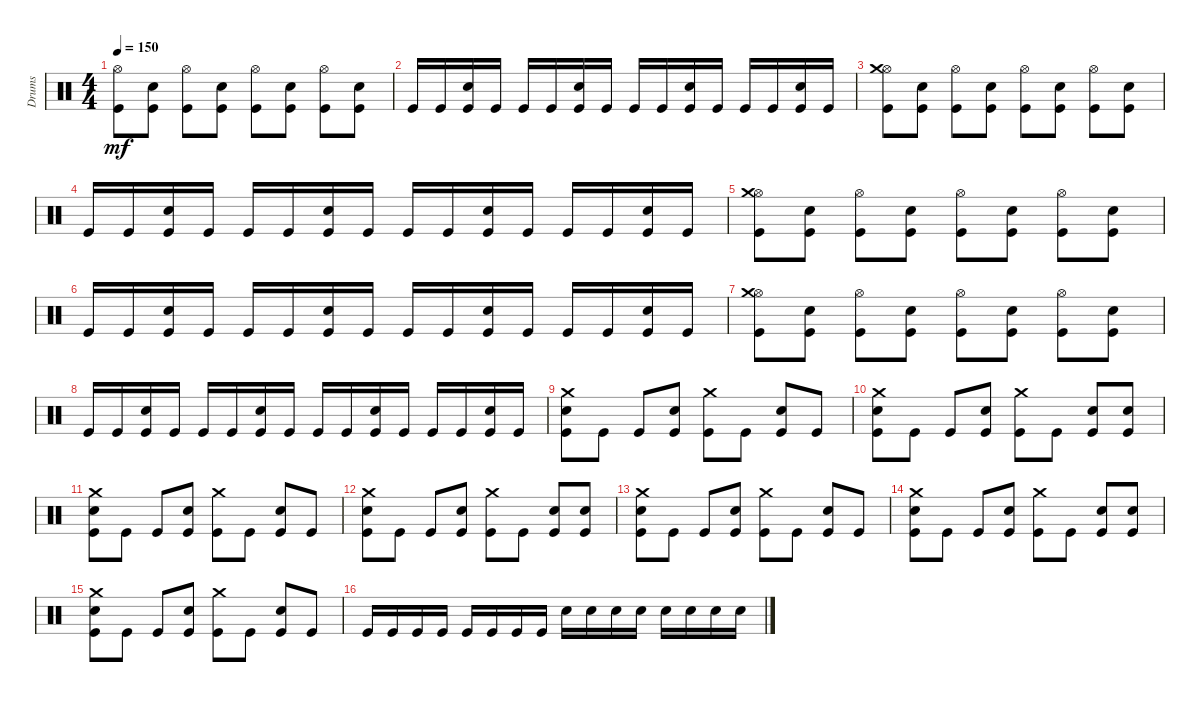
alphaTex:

\track ("Drums" "Drums") {instrument percussion}
\staff {score}
\articulation defaults
\ts (4 4)
\tempo 150
\clef neutral
\ks c
("Kick (hit)" "Hi-Hat (open)").8{dy mf} ("Kick (hit)" "Snare (hit) 2").8 ("Kick (hit)" "Hi-Hat (open)").8 ("Kick (hit)" "Snare (hit) 2").8 ("Kick (hit)" "Hi-Hat (open)").8 ("Kick (hit)" "Snare (hit) 2").8 ("Kick (hit)" "Hi-Hat (open)").8 ("Kick (hit)" "Snare (hit) 2").8 |
"Kick (hit)".16 "Kick (hit)".16 ("Kick (hit)" "Snare (hit) 2").16 "Kick (hit)".16 "Kick (hit)".16 "Kick (hit)".16 ("Kick (hit)" "Snare (hit) 2").16 "Kick (hit)".16 "Kick (hit)".16 "Kick (hit)".16 ("Kick (hit)" "Snare (hit) 2").16 "Kick (hit)".16 "Kick (hit)".16 "Kick (hit)".16 ("Kick (hit)" "Snare (hit) 2").16 "Kick (hit)".16 |
("Kick (hit)" "Hi-Hat (open)" "Crash medium (hit)").8 ("Kick (hit)" "Snare (hit) 2").8 ("Kick (hit)" "Hi-Hat (open)").8 ("Kick (hit)" "Snare (hit) 2").8 ("Kick (hit)" "Hi-Hat (open)").8 ("Kick (hit)" "Snare (hit) 2").8 ("Kick (hit)" "Hi-Hat (open)").8 ("Kick (hit)" "Snare (hit) 2").8 |
"Kick (hit)".16 "Kick (hit)".16 ("Kick (hit)" "Snare (hit) 2").16 "Kick (hit)".16 "Kick (hit)".16 "Kick (hit)".16 ("Kick (hit)" "Snare (hit) 2").16 "Kick (hit)".16 "Kick (hit)".16 "Kick (hit)".16 ("Kick (hit)" "Snare (hit) 2").16 "Kick (hit)".16 "Kick (hit)".16 "Kick (hit)".16 ("Kick (hit)" "Snare (hit) 2").16 "Kick (hit)".16 |
("Kick (hit)" "Hi-Hat (open)" "Crash medium (hit)").8 ("Kick (hit)" "Snare (hit) 2").8 ("Kick (hit)" "Hi-Hat (open)").8 ("Kick (hit)" "Snare (hit) 2").8 ("Kick (hit)" "Hi-Hat (open)").8 ("Kick (hit)" "Snare (hit) 2").8 ("Kick (hit)" "Hi-Hat (open)").8 ("Kick (hit)" "Snare (hit) 2").8 |
"Kick (hit)".16 "Kick (hit)".16 ("Kick (hit)" "Snare (hit) 2").16 "Kick (hit)".16 "Kick (hit)".16 "Kick (hit)".16 ("Kick (hit)" "Snare (hit) 2").16 "Kick (hit)".16 "Kick (hit)".16 "Kick (hit)".16 ("Kick (hit)" "Snare (hit) 2").16 "Kick (hit)".16 "Kick (hit)".16 "Kick (hit)".16 ("Kick (hit)" "Snare (hit) 2").16 "Kick (hit)".16 |
("Kick (hit)" "Hi-Hat (open)" "Crash medium (hit)").8 ("Kick (hit)" "Snare (hit) 2").8 ("Kick (hit)" "Hi-Hat (open)").8 ("Kick (hit)" "Snare (hit) 2").8 ("Kick (hit)" "Hi-Hat (open)").8 ("Kick (hit)" "Snare (hit) 2").8 ("Kick (hit)" "Hi-Hat (open)").8 ("Kick (hit)" "Snare (hit) 2").8 |
"Kick (hit)".16 "Kick (hit)".16 ("Kick (hit)" "Snare (hit) 2").16 "Kick (hit)".16 "Kick (hit)".16 "Kick (hit)".16 ("Kick (hit)" "Snare (hit) 2").16 "Kick (hit)".16 "Kick (hit)".16 "Kick (hit)".16 ("Kick (hit)" "Snare (hit) 2").16 "Kick (hit)".16 "Kick (hit)".16 "Kick (hit)".16 ("Kick (hit)" "Snare (hit) 2").16 "Kick (hit)".16 |
("Kick (hit)" "Snare (hit) 2" "Crash medium (hit)").8 "Kick (hit)".8 "Kick (hit)".8 ("Kick (hit)" "Snare (hit) 2").8 ("Kick (hit)" "Crash medium (hit)").8 "Kick (hit)".8 ("Kick (hit)" "Snare (hit) 2").8 "Kick (hit)".8 |
("Kick (hit)" "Snare (hit) 2" "Crash medium (hit)").8 "Kick (hit)".8 "Kick (hit)".8 ("Kick (hit)" "Snare (hit) 2").8 ("Kick (hit)" "Crash medium (hit)").8 "Kick (hit)".8 ("Kick (hit)" "Snare (hit) 2").8 ("Kick (hit)" "Snare (hit) 2").8 |
("Kick (hit)" "Snare (hit) 2" "Crash medium (hit)").8 "Kick (hit)".8 "Kick (hit)".8 ("Kick (hit)" "Snare (hit) 2").8 ("Kick (hit)" "Crash medium (hit)").8 "Kick (hit)".8 ("Kick (hit)" "Snare (hit) 2").8 "Kick (hit)".8 |
("Kick (hit)" "Snare (hit) 2" "Crash medium (hit)").8 "Kick (hit)".8 "Kick (hit)".8 ("Kick (hit)" "Snare (hit) 2").8 ("Kick (hit)" "Crash medium (hit)").8 "Kick (hit)".8 ("Kick (hit)" "Snare (hit) 2").8 ("Kick (hit)" "Snare (hit) 2").8 |
("Kick (hit)" "Snare (hit) 2" "Crash medium (hit)").8 "Kick (hit)".8 "Kick (hit)".8 ("Kick (hit)" "Snare (hit) 2").8 ("Kick (hit)" "Crash medium (hit)").8 "Kick (hit)".8 ("Kick (hit)" "Snare (hit) 2").8 "Kick (hit)".8 |
("Kick (hit)" "Snare (hit) 2" "Crash medium (hit)").8 "Kick (hit)".8 "Kick (hit)".8 ("Kick (hit)" "Snare (hit) 2").8 ("Kick (hit)" "Crash medium (hit)").8 "Kick (hit)".8 ("Kick (hit)" "Snare (hit) 2").8 ("Kick (hit)" "Snare (hit) 2").8 |
("Kick (hit)" "Snare (hit) 2" "Crash medium (hit)").8 "Kick (hit)".8 "Kick (hit)".8 ("Kick (hit)" "Snare (hit) 2").8 ("Kick (hit)" "Crash medium (hit)").8 "Kick (hit)".8 ("Kick (hit)" "Snare (hit) 2").8 "Kick (hit)".8 |
"Kick (hit)".16 "Kick (hit)".16 "Kick (hit)".16 "Kick (hit)".16 "Kick (hit)".16 "Kick (hit)".16 "Kick (hit)".16 "Kick (hit)".16 "Snare (hit) 2".16 "Snare (hit) 2".16 "Snare (hit) 2".16 "Snare (hit) 2".16 "Snare (hit) 2".16 "Snare (hit) 2".16 "Snare (hit) 2".16 "Snare (hit) 2".16
